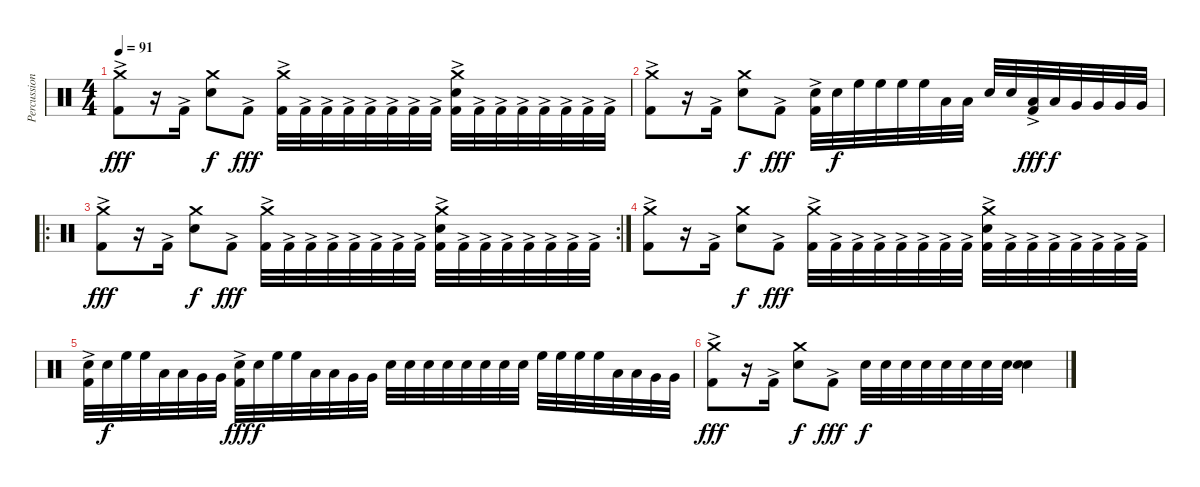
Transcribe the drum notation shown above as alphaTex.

\track ("Percussion" "Percussion") {instrument percussion}
\staff {score}
\articulation defaults
\ts (4 4)
\tempo 91
\clef neutral
\ks c
("Crash medium (hit)" "Kick (hit) 2"{ac}).8{dy fff} r.16 "Kick (hit) 2"{ac}.16 ("Crash medium (hit)" "Electric Snare (hit)").8{dy f} "Kick (hit) 2"{ac}.8{dy fff} ("Crash medium (hit)" "Kick (hit) 2"{ac}).32 "Kick (hit) 2"{ac}.32 "Kick (hit) 2"{ac}.32 "Kick (hit) 2"{ac}.32 "Kick (hit) 2"{ac}.32 "Kick (hit) 2"{ac}.32 "Kick (hit) 2"{ac}.32 "Kick (hit) 2"{ac}.32 ("Crash medium (hit)" "Electric Snare (hit)" "Kick (hit) 2"{ac}).32 "Kick (hit) 2"{ac}.32 "Kick (hit) 2"{ac}.32 "Kick (hit) 2"{ac}.32 "Kick (hit) 2"{ac}.32 "Kick (hit) 2"{ac}.32 "Kick (hit) 2"{ac}.32 "Kick (hit) 2"{ac}.32 |
("Crash medium (hit)" "Kick (hit) 2"{ac}).8 r.16 "Kick (hit) 2"{ac}.16 ("Crash medium (hit)" "Electric Snare (hit)").8{dy f} "Kick (hit) 2"{ac}.8{dy fff} ("Electric Snare (hit)" "Kick (hit) 2"{ac}).32 "Electric Snare (hit)".32{dy f} "High Floor Tom (hit)".32 "High Floor Tom (hit)".32 "High Floor Tom (hit)".32 "High Floor Tom (hit)".32 "Low Tom (hit)".32 "Low Tom (hit)".32 "Electric Snare (hit)".32 "Electric Snare (hit)".32 ("Low Tom (hit)" "Kick (hit) 2"{ac}).32{dy fff} "Low Tom (hit)".32{dy f} "Very Low Tom (hit)".32 "Very Low Tom (hit)".32 "Very Low Tom (hit)".32 "Very Low Tom (hit)".32 |
\ro
\rc 2
("Crash medium (hit)" "Kick (hit) 2"{ac}).8{dy fff} r.16 "Kick (hit) 2"{ac}.16 ("Crash medium (hit)" "Electric Snare (hit)").8{dy f} "Kick (hit) 2"{ac}.8{dy fff} ("Crash medium (hit)" "Kick (hit) 2"{ac}).32 "Kick (hit) 2"{ac}.32 "Kick (hit) 2"{ac}.32 "Kick (hit) 2"{ac}.32 "Kick (hit) 2"{ac}.32 "Kick (hit) 2"{ac}.32 "Kick (hit) 2"{ac}.32 "Kick (hit) 2"{ac}.32 ("Crash medium (hit)" "Electric Snare (hit)" "Kick (hit) 2"{ac}).32 "Kick (hit) 2"{ac}.32 "Kick (hit) 2"{ac}.32 "Kick (hit) 2"{ac}.32 "Kick (hit) 2"{ac}.32 "Kick (hit) 2"{ac}.32 "Kick (hit) 2"{ac}.32 "Kick (hit) 2"{ac}.32 |
("Crash medium (hit)" "Kick (hit) 2"{ac}).8 r.16 "Kick (hit) 2"{ac}.16 ("Crash medium (hit)" "Electric Snare (hit)").8{dy f} "Kick (hit) 2"{ac}.8{dy fff} ("Crash medium (hit)" "Kick (hit) 2"{ac}).32 "Kick (hit) 2"{ac}.32 "Kick (hit) 2"{ac}.32 "Kick (hit) 2"{ac}.32 "Kick (hit) 2"{ac}.32 "Kick (hit) 2"{ac}.32 "Kick (hit) 2"{ac}.32 "Kick (hit) 2"{ac}.32 ("Crash medium (hit)" "Electric Snare (hit)" "Kick (hit) 2"{ac}).32 "Kick (hit) 2"{ac}.32 "Kick (hit) 2"{ac}.32 "Kick (hit) 2"{ac}.32 "Kick (hit) 2"{ac}.32 "Kick (hit) 2"{ac}.32 "Kick (hit) 2"{ac}.32 "Kick (hit) 2"{ac}.32 |
("Electric Snare (hit)" "Kick (hit) 2"{ac}).32 "Electric Snare (hit)".32{dy f} "High Floor Tom (hit)".32 "High Floor Tom (hit)".32 "Low Tom (hit)".32 "Low Tom (hit)".32 "Very Low Tom (hit)".32 "Very Low Tom (hit)".32 ("Electric Snare (hit)" "Kick (hit) 2"{ac}).32{dy fff} "Electric Snare (hit)".32{dy f} "High Floor Tom (hit)".32 "High Floor Tom (hit)".32 "Low Tom (hit)".32 "Low Tom (hit)".32 "Very Low Tom (hit)".32 "Very Low Tom (hit)".32 "Electric Snare (hit)".32 "Electric Snare (hit)".32 "Electric Snare (hit)".32 "Electric Snare (hit)".32 "Electric Snare (hit)".32 "Electric Snare (hit)".32 "Electric Snare (hit)".32 "Electric Snare (hit)".32 "High Floor Tom (hit)".32 "High Floor Tom (hit)".32 "High Floor Tom (hit)".32 "High Floor Tom (hit)".32 "Low Tom (hit)".32 "Low Tom (hit)".32 "Very Low Tom (hit)".32 "Very Low Tom (hit)".32 |
("Crash medium (hit)" "Kick (hit) 2"{ac}).8{dy fff} r.16 "Kick (hit) 2"{ac}.16 ("Crash medium (hit)" "Electric Snare (hit)").8{dy f} "Kick (hit) 2"{ac}.8{dy fff} "Electric Snare (hit)".32{dy f} "Electric Snare (hit)".32 "Electric Snare (hit)".32 "Electric Snare (hit)".32 "Electric Snare (hit)".32 "Electric Snare (hit)".32 "Electric Snare (hit)".32 "Electric Snare (hit)".32 ("Electric Snare (hit)" "Electric Snare (hit)").4
